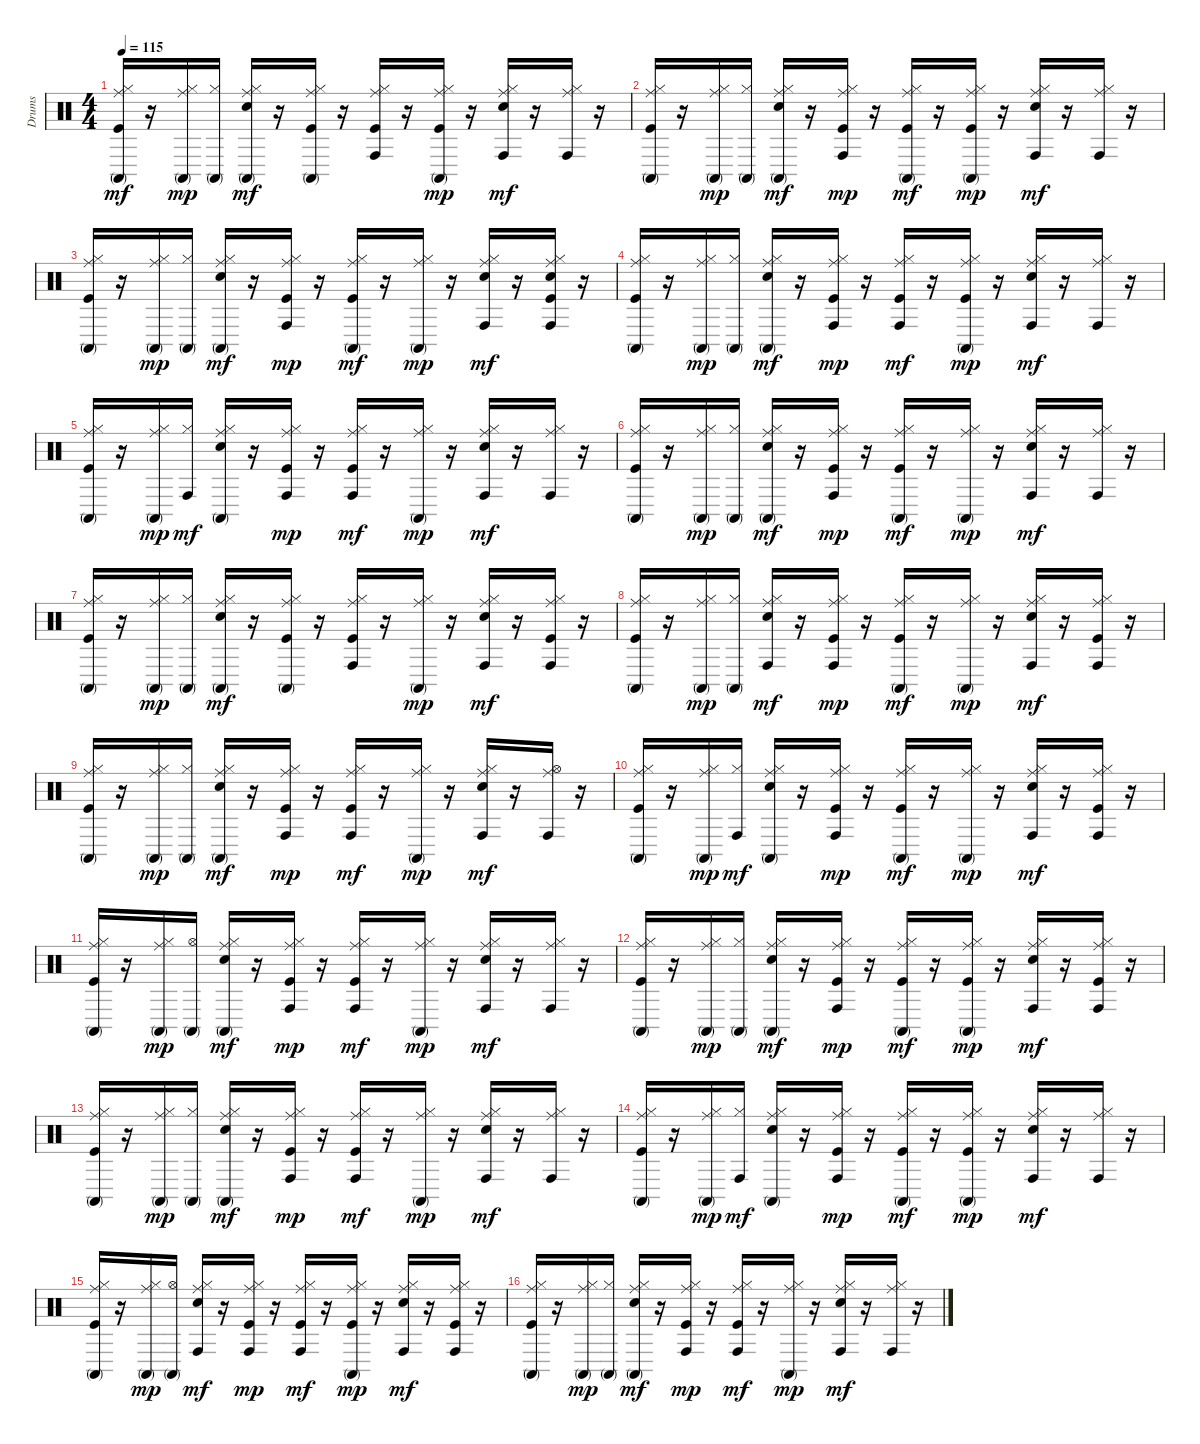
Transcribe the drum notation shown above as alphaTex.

\track ("Drums" "Drums") {instrument percussion}
\staff {score}
\articulation defaults
\ts (4 4)
\tempo 115
\clef neutral
\ks c
("Kick (hit)" "Hi-Hat (closed)" "Ride (middle)" "Conga high (mute)").16{dy mf} r.16 ("Hi-Hat (closed)" "Ride (middle)" "Conga high (mute)").16{dy mp} ("Hi-Hat (closed)" "Conga high (mute)").16 ("Snare (hit) 2" "Hi-Hat (closed)" "Ride (middle)" "Conga high (mute)").16{dy mf} r.16 ("Kick (hit)" "Hi-Hat (closed)" "Ride (middle)" "Conga high (mute)").16 r.16 ("Kick (hit)" "Hi-Hat (closed)" "Ride (middle)" "Conga high (hit)").16 r.16 ("Kick (hit)" "Hi-Hat (closed)" "Ride (middle)" "Conga high (mute)").16{dy mp} r.16 ("Snare (hit) 2" "Hi-Hat (closed)" "Ride (middle)" "Conga high (hit)").16{dy mf} r.16 ("Hi-Hat (closed)" "Ride (middle)" "Conga high (hit)").16 r.16 |
("Kick (hit)" "Hi-Hat (closed)" "Ride (middle)" "Conga high (mute)").16 r.16 ("Hi-Hat (closed)" "Ride (middle)" "Conga high (mute)").16{dy mp} ("Hi-Hat (closed)" "Conga high (mute)").16 ("Snare (hit) 2" "Hi-Hat (closed)" "Ride (middle)" "Conga high (mute)").16{dy mf} r.16 ("Kick (hit)" "Hi-Hat (closed)" "Ride (middle)" "Conga high (hit)").16{dy mp} r.16 ("Kick (hit)" "Hi-Hat (closed)" "Ride (middle)" "Conga high (mute)").16{dy mf} r.16 ("Kick (hit)" "Hi-Hat (closed)" "Ride (middle)" "Conga high (mute)").16{dy mp} r.16 ("Snare (hit) 2" "Hi-Hat (closed)" "Ride (middle)" "Conga high (hit)").16{dy mf} r.16 ("Hi-Hat (closed)" "Ride (middle)" "Conga high (hit)").16 r.16 |
("Kick (hit)" "Hi-Hat (closed)" "Ride (middle)" "Conga high (mute)").16 r.16 ("Hi-Hat (closed)" "Ride (middle)" "Conga high (mute)").16{dy mp} ("Hi-Hat (closed)" "Conga high (mute)").16 ("Snare (hit) 2" "Hi-Hat (closed)" "Ride (middle)" "Conga high (mute)").16{dy mf} r.16 ("Kick (hit)" "Hi-Hat (closed)" "Ride (middle)" "Conga high (hit)").16{dy mp} r.16 ("Kick (hit)" "Hi-Hat (closed)" "Ride (middle)" "Conga high (mute)").16{dy mf} r.16 ("Hi-Hat (closed)" "Ride (middle)" "Conga high (mute)").16{dy mp} r.16 ("Snare (hit) 2" "Hi-Hat (closed)" "Ride (middle)" "Conga high (hit)").16{dy mf} r.16 ("Kick (hit)" "Snare (hit) 2" "Hi-Hat (closed)" "Ride (middle)" "Conga high (hit)").16 r.16 |
("Kick (hit)" "Hi-Hat (closed)" "Ride (middle)" "Conga high (mute)").16 r.16 ("Hi-Hat (closed)" "Ride (middle)" "Conga high (mute)").16{dy mp} ("Hi-Hat (closed)" "Conga high (mute)").16 ("Snare (hit) 2" "Hi-Hat (closed)" "Ride (middle)" "Conga high (mute)").16{dy mf} r.16 ("Kick (hit)" "Hi-Hat (closed)" "Ride (middle)" "Conga high (hit)").16{dy mp} r.16 ("Kick (hit)" "Hi-Hat (closed)" "Ride (middle)" "Conga high (hit)").16{dy mf} r.16 ("Kick (hit)" "Hi-Hat (closed)" "Ride (middle)" "Conga high (mute)").16{dy mp} r.16 ("Snare (hit) 2" "Hi-Hat (closed)" "Ride (middle)" "Conga high (hit)").16{dy mf} r.16 ("Hi-Hat (closed)" "Ride (middle)" "Conga high (hit)").16 r.16 |
("Kick (hit)" "Hi-Hat (closed)" "Ride (middle)" "Conga high (mute)").16 r.16 ("Hi-Hat (closed)" "Ride (middle)" "Conga high (mute)").16{dy mp} ("Hi-Hat (closed)" "Conga high (hit)").16{dy mf} ("Snare (hit) 2" "Hi-Hat (closed)" "Ride (middle)" "Conga high (mute)").16 r.16 ("Kick (hit)" "Hi-Hat (closed)" "Ride (middle)" "Conga high (hit)").16{dy mp} r.16 ("Kick (hit)" "Hi-Hat (closed)" "Ride (middle)" "Conga high (hit)").16{dy mf} r.16 ("Hi-Hat (closed)" "Ride (middle)" "Conga high (mute)").16{dy mp} r.16 ("Snare (hit) 2" "Hi-Hat (closed)" "Ride (middle)" "Conga high (hit)").16{dy mf} r.16 ("Hi-Hat (closed)" "Ride (middle)" "Conga high (hit)").16 r.16 |
("Kick (hit)" "Hi-Hat (closed)" "Ride (middle)" "Conga high (mute)").16 r.16 ("Hi-Hat (closed)" "Ride (middle)" "Conga high (mute)").16{dy mp} ("Hi-Hat (closed)" "Conga high (mute)").16 ("Snare (hit) 2" "Hi-Hat (closed)" "Ride (middle)" "Conga high (mute)").16{dy mf} r.16 ("Kick (hit)" "Hi-Hat (closed)" "Ride (middle)" "Conga high (hit)").16{dy mp} r.16 ("Kick (hit)" "Hi-Hat (closed)" "Ride (middle)" "Conga high (mute)").16{dy mf} r.16 ("Hi-Hat (closed)" "Ride (middle)" "Conga high (mute)").16{dy mp} r.16 ("Snare (hit) 2" "Hi-Hat (closed)" "Ride (middle)" "Conga high (hit)").16{dy mf} r.16 ("Hi-Hat (closed)" "Ride (middle)" "Conga high (hit)").16 r.16 |
("Kick (hit)" "Hi-Hat (closed)" "Ride (middle)" "Conga high (mute)").16 r.16 ("Hi-Hat (closed)" "Ride (middle)" "Conga high (mute)").16{dy mp} ("Hi-Hat (closed)" "Conga high (mute)").16 ("Snare (hit) 2" "Hi-Hat (closed)" "Ride (middle)" "Conga high (mute)").16{dy mf} r.16 ("Kick (hit)" "Hi-Hat (closed)" "Ride (middle)" "Conga high (mute)").16 r.16 ("Kick (hit)" "Hi-Hat (closed)" "Ride (middle)" "Conga high (hit)").16 r.16 ("Hi-Hat (closed)" "Ride (middle)" "Conga high (mute)").16{dy mp} r.16 ("Snare (hit) 2" "Hi-Hat (closed)" "Ride (middle)" "Conga high (hit)").16{dy mf} r.16 ("Kick (hit)" "Hi-Hat (closed)" "Ride (middle)" "Conga high (hit)").16 r.16 |
("Kick (hit)" "Hi-Hat (closed)" "Ride (middle)" "Conga high (mute)").16 r.16 ("Hi-Hat (closed)" "Ride (middle)" "Conga high (mute)").16{dy mp} ("Hi-Hat (closed)" "Conga high (mute)").16 ("Snare (hit) 2" "Hi-Hat (closed)" "Ride (middle)" "Conga high (hit)").16{dy mf} r.16 ("Kick (hit)" "Hi-Hat (closed)" "Ride (middle)" "Conga high (hit)").16{dy mp} r.16 ("Kick (hit)" "Hi-Hat (closed)" "Ride (middle)" "Conga high (mute)").16{dy mf} r.16 ("Hi-Hat (closed)" "Ride (middle)" "Conga high (mute)").16{dy mp} r.16 ("Snare (hit) 2" "Hi-Hat (closed)" "Ride (middle)" "Conga high (hit)").16{dy mf} r.16 ("Kick (hit)" "Hi-Hat (closed)" "Ride (middle)" "Conga high (hit)").16 r.16 |
("Kick (hit)" "Hi-Hat (closed)" "Ride (middle)" "Conga high (mute)").16 r.16 ("Hi-Hat (closed)" "Ride (middle)" "Conga high (mute)").16{dy mp} ("Hi-Hat (closed)" "Conga high (mute)").16 ("Snare (hit) 2" "Hi-Hat (closed)" "Ride (middle)" "Conga high (mute)").16{dy mf} r.16 ("Kick (hit)" "Hi-Hat (closed)" "Ride (middle)" "Conga high (hit)").16{dy mp} r.16 ("Kick (hit)" "Hi-Hat (closed)" "Ride (middle)" "Conga high (hit)").16{dy mf} r.16 ("Hi-Hat (closed)" "Ride (middle)" "Conga high (mute)").16{dy mp} r.16 ("Snare (hit) 2" "Hi-Hat (closed)" "Ride (middle)" "Conga high (hit)").16{dy mf} r.16 ("Hi-Hat (open)" "Ride (middle)" "Conga high (hit)").16 r.16 |
("Kick (hit)" "Hi-Hat (closed)" "Ride (middle)" "Conga high (mute)").16 r.16 ("Hi-Hat (closed)" "Ride (middle)" "Conga high (mute)").16{dy mp} ("Hi-Hat (closed)" "Conga high (hit)").16{dy mf} ("Snare (hit) 2" "Hi-Hat (closed)" "Ride (middle)" "Conga high (mute)").16 r.16 ("Kick (hit)" "Hi-Hat (closed)" "Ride (middle)" "Conga high (hit)").16{dy mp} r.16 ("Kick (hit)" "Hi-Hat (closed)" "Ride (middle)" "Conga high (mute)").16{dy mf} r.16 ("Hi-Hat (closed)" "Ride (middle)" "Conga high (mute)").16{dy mp} r.16 ("Snare (hit) 2" "Hi-Hat (closed)" "Ride (middle)" "Conga high (hit)").16{dy mf} r.16 ("Kick (hit)" "Hi-Hat (closed)" "Ride (middle)" "Conga high (hit)").16 r.16 |
("Kick (hit)" "Hi-Hat (closed)" "Ride (middle)" "Conga high (mute)").16 r.16 ("Hi-Hat (closed)" "Ride (middle)" "Conga high (mute)").16{dy mp} ("Hi-Hat (open)" "Conga high (mute)").16 ("Snare (hit) 2" "Hi-Hat (closed)" "Ride (middle)" "Conga high (mute)").16{dy mf} r.16 ("Kick (hit)" "Hi-Hat (closed)" "Ride (middle)" "Conga high (hit)").16{dy mp} r.16 ("Kick (hit)" "Hi-Hat (closed)" "Ride (middle)" "Conga high (hit)").16{dy mf} r.16 ("Hi-Hat (closed)" "Ride (middle)" "Conga high (mute)").16{dy mp} r.16 ("Snare (hit) 2" "Hi-Hat (closed)" "Ride (middle)" "Conga high (hit)").16{dy mf} r.16 ("Hi-Hat (closed)" "Ride (middle)" "Conga high (hit)").16 r.16 |
("Kick (hit)" "Hi-Hat (closed)" "Ride (middle)" "Conga high (mute)").16 r.16 ("Hi-Hat (closed)" "Ride (middle)" "Conga high (mute)").16{dy mp} ("Hi-Hat (closed)" "Conga high (mute)").16 ("Snare (hit) 2" "Hi-Hat (closed)" "Ride (middle)" "Conga high (mute)").16{dy mf} r.16 ("Kick (hit)" "Hi-Hat (closed)" "Ride (middle)" "Conga high (hit)").16{dy mp} r.16 ("Kick (hit)" "Hi-Hat (closed)" "Ride (middle)" "Conga high (mute)").16{dy mf} r.16 ("Kick (hit)" "Hi-Hat (closed)" "Ride (middle)" "Conga high (mute)").16{dy mp} r.16 ("Snare (hit) 2" "Hi-Hat (closed)" "Ride (middle)" "Conga high (hit)").16{dy mf} r.16 ("Kick (hit)" "Hi-Hat (closed)" "Ride (middle)" "Conga high (hit)").16 r.16 |
("Kick (hit)" "Hi-Hat (closed)" "Ride (middle)" "Conga high (mute)").16 r.16 ("Hi-Hat (closed)" "Ride (middle)" "Conga high (mute)").16{dy mp} ("Hi-Hat (closed)" "Conga high (mute)").16 ("Snare (hit) 2" "Hi-Hat (closed)" "Ride (middle)" "Conga high (mute)").16{dy mf} r.16 ("Kick (hit)" "Hi-Hat (closed)" "Ride (middle)" "Conga high (hit)").16{dy mp} r.16 ("Kick (hit)" "Hi-Hat (closed)" "Ride (middle)" "Conga high (hit)").16{dy mf} r.16 ("Hi-Hat (closed)" "Ride (middle)" "Conga high (mute)").16{dy mp} r.16 ("Snare (hit) 2" "Hi-Hat (closed)" "Ride (middle)" "Conga high (hit)").16{dy mf} r.16 ("Hi-Hat (closed)" "Ride (middle)" "Conga high (hit)").16 r.16 |
("Kick (hit)" "Hi-Hat (closed)" "Ride (middle)" "Conga high (mute)").16 r.16 ("Hi-Hat (closed)" "Ride (middle)" "Conga high (mute)").16{dy mp} ("Hi-Hat (closed)" "Conga high (hit)").16{dy mf} ("Snare (hit) 2" "Hi-Hat (closed)" "Ride (middle)" "Conga high (mute)").16 r.16 ("Kick (hit)" "Hi-Hat (closed)" "Ride (middle)" "Conga high (hit)").16{dy mp} r.16 ("Kick (hit)" "Hi-Hat (closed)" "Ride (middle)" "Conga high (mute)").16{dy mf} r.16 ("Kick (hit)" "Hi-Hat (closed)" "Ride (middle)" "Conga high (mute)").16{dy mp} r.16 ("Snare (hit) 2" "Hi-Hat (closed)" "Ride (middle)" "Conga high (hit)").16{dy mf} r.16 ("Hi-Hat (closed)" "Ride (middle)" "Conga high (hit)").16 r.16 |
("Kick (hit)" "Hi-Hat (closed)" "Ride (middle)" "Conga high (mute)").16 r.16 ("Hi-Hat (closed)" "Ride (middle)" "Conga high (mute)").16{dy mp} ("Hi-Hat (open)" "Conga high (mute)").16 ("Snare (hit) 2" "Hi-Hat (closed)" "Ride (middle)" "Conga high (hit)").16{dy mf} r.16 ("Kick (hit)" "Hi-Hat (closed)" "Ride (middle)" "Conga high (hit)").16{dy mp} r.16 ("Kick (hit)" "Hi-Hat (closed)" "Ride (middle)" "Conga high (hit)").16{dy mf} r.16 ("Kick (hit)" "Hi-Hat (closed)" "Ride (middle)" "Conga high (mute)").16{dy mp} r.16 ("Snare (hit) 2" "Hi-Hat (closed)" "Ride (middle)" "Conga high (hit)").16{dy mf} r.16 ("Kick (hit)" "Hi-Hat (closed)" "Ride (middle)" "Conga high (hit)").16 r.16 |
("Kick (hit)" "Hi-Hat (closed)" "Ride (middle)" "Conga high (mute)").16 r.16 ("Hi-Hat (closed)" "Ride (middle)" "Conga high (mute)").16{dy mp} ("Hi-Hat (closed)" "Conga high (mute)").16 ("Snare (hit) 2" "Hi-Hat (closed)" "Ride (middle)" "Conga high (mute)").16{dy mf} r.16 ("Kick (hit)" "Hi-Hat (closed)" "Ride (middle)" "Conga high (hit)").16{dy mp} r.16 ("Kick (hit)" "Hi-Hat (closed)" "Ride (middle)" "Conga high (hit)").16{dy mf} r.16 ("Hi-Hat (closed)" "Ride (middle)" "Conga high (mute)").16{dy mp} r.16 ("Snare (hit) 2" "Hi-Hat (closed)" "Ride (middle)" "Conga high (hit)").16{dy mf} r.16 ("Hi-Hat (closed)" "Ride (middle)" "Conga high (hit)").16 r.16
